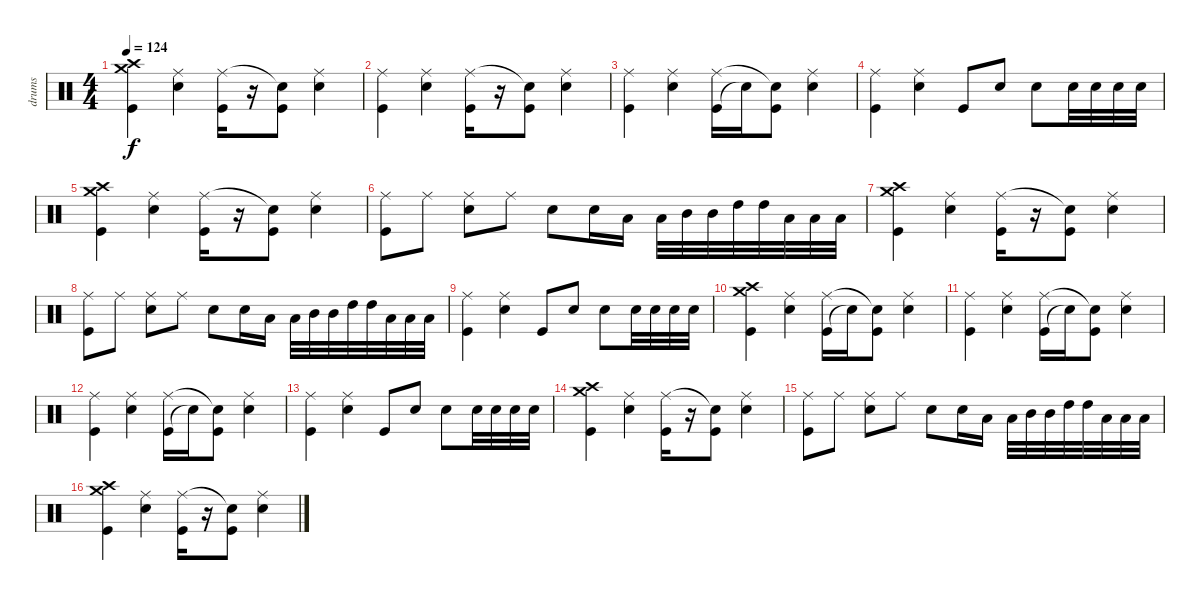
\track ("drums" "drums") {instrument percussion}
\staff {score}
\articulation defaults
\ts (4 4)
\tempo 124
\clef neutral
\ks c
("Kick (hit)" "Crash medium (hit)" "Crash high (hit)").4{dy f} ("Snare (hit) 2" "Ride (middle)").4 ("Kick (hit)" "Ride (middle)").16 r.16 ("Kick (hit)" "Snare (hit)"{t}).8 ("Snare (hit) 2" "Ride (middle)").4 |
("Kick (hit)" "Ride (middle)").4 ("Snare (hit) 2" "Ride (middle)").4 ("Kick (hit)" "Ride (middle)").16 r.16 ("Kick (hit)" "Snare (hit)"{t}).8 ("Snare (hit) 2" "Ride (middle)").4 |
("Kick (hit)" "Ride (middle)").4 ("Snare (hit) 2" "Ride (middle)").4 ("Kick (hit)" "Ride (middle)").16 "Snare (hit)"{t}.16 ("Kick (hit)" "Snare (hit)"{t}).8 ("Snare (hit) 2" "Ride (middle)").4 |
("Kick (hit)" "Ride (middle)").4 ("Snare (hit) 2" "Ride (middle)").4 "Kick (hit)".8 "Snare (hit) 2".8 "Snare (hit) 2".8 "Snare (hit) 2".32 "Snare (hit) 2".32 "Snare (hit) 2".32 "Snare (hit) 2".32 |
("Kick (hit)" "Crash medium (hit)" "Crash high (hit)").4 ("Snare (hit) 2" "Ride (middle)").4 ("Kick (hit)" "Ride (middle)").16 r.16 ("Kick (hit)" "Snare (hit)"{t}).8 ("Snare (hit) 2" "Ride (middle)").4 |
("Kick (hit)" "Ride (middle)").8 "Ride (middle)".8 ("Snare (hit) 2" "Ride (middle)").8 "Ride (middle)".8 "Snare (hit) 2".8 "Snare (hit) 2".16 "Low Tom (hit)".16 "Low Tom (hit)".32 "Mid Tom (hit)".32 "Mid Tom (hit)".32 "High Tom (hit)".32 "High Tom (hit)".32 "Low Floor Tom (hit)".32 "Low Floor Tom (hit)".32 "Low Floor Tom (hit)".32 |
("Kick (hit)" "Crash medium (hit)" "Crash high (hit)").4 ("Snare (hit) 2" "Ride (middle)").4 ("Kick (hit)" "Ride (middle)").16 r.16 ("Kick (hit)" "Snare (hit)"{t}).8 ("Snare (hit) 2" "Ride (middle)").4 |
("Kick (hit)" "Ride (middle)").8 "Ride (middle)".8 ("Snare (hit) 2" "Ride (middle)").8 "Ride (middle)".8 "Snare (hit) 2".8 "Snare (hit) 2".16 "Low Tom (hit)".16 "Low Tom (hit)".32 "Mid Tom (hit)".32 "Mid Tom (hit)".32 "High Tom (hit)".32 "High Tom (hit)".32 "Low Floor Tom (hit)".32 "Low Floor Tom (hit)".32 "Low Floor Tom (hit)".32 |
("Kick (hit)" "Ride (middle)").4 ("Snare (hit) 2" "Ride (middle)").4 "Kick (hit)".8 "Snare (hit) 2".8 "Snare (hit) 2".8 "Snare (hit) 2".32 "Snare (hit) 2".32 "Snare (hit) 2".32 "Snare (hit) 2".32 |
("Kick (hit)" "Crash medium (hit)" "Crash high (hit)").4{volume 4} ("Snare (hit) 2" "Ride (middle)").4 ("Kick (hit)" "Ride (middle)").16 "Snare (hit)"{t}.16 ("Kick (hit)" "Snare (hit)"{t}).8 ("Snare (hit) 2" "Ride (middle)").4 |
("Kick (hit)" "Ride (middle)").4 ("Snare (hit) 2" "Ride (middle)").4 ("Kick (hit)" "Ride (middle)").16 "Snare (hit)"{t}.16 ("Kick (hit)" "Snare (hit)"{t}).8 ("Snare (hit) 2" "Ride (middle)").4 |
("Kick (hit)" "Ride (middle)").4 ("Snare (hit) 2" "Ride (middle)").4 ("Kick (hit)" "Ride (middle)").16 "Snare (hit)"{t}.16 ("Kick (hit)" "Snare (hit)"{t}).8 ("Snare (hit) 2" "Ride (middle)").4 |
("Kick (hit)" "Ride (middle)").4 ("Snare (hit) 2" "Ride (middle)").4 "Kick (hit)".8 "Snare (hit) 2".8 "Snare (hit) 2".8 "Snare (hit) 2".32 "Snare (hit) 2".32 "Snare (hit) 2".32 "Snare (hit) 2".32 |
("Kick (hit)" "Crash medium (hit)" "Crash high (hit)").4 ("Snare (hit) 2" "Ride (middle)").4 ("Kick (hit)" "Ride (middle)").16 r.16 ("Kick (hit)" "Snare (hit)"{t}).8 ("Snare (hit) 2" "Ride (middle)").4 |
("Kick (hit)" "Ride (middle)").8 "Ride (middle)".8 ("Snare (hit) 2" "Ride (middle)").8 "Ride (middle)".8 "Snare (hit) 2".8 "Snare (hit) 2".16 "Low Tom (hit)".16 "Low Tom (hit)".32 "Mid Tom (hit)".32 "Mid Tom (hit)".32 "High Tom (hit)".32 "High Tom (hit)".32 "Low Floor Tom (hit)".32 "Low Floor Tom (hit)".32 "Low Floor Tom (hit)".32 |
("Kick (hit)" "Crash medium (hit)" "Crash high (hit)").4 ("Snare (hit) 2" "Ride (middle)").4 ("Kick (hit)" "Ride (middle)").16 r.16 ("Kick (hit)" "Snare (hit)"{t}).8 ("Snare (hit) 2" "Ride (middle)").4
